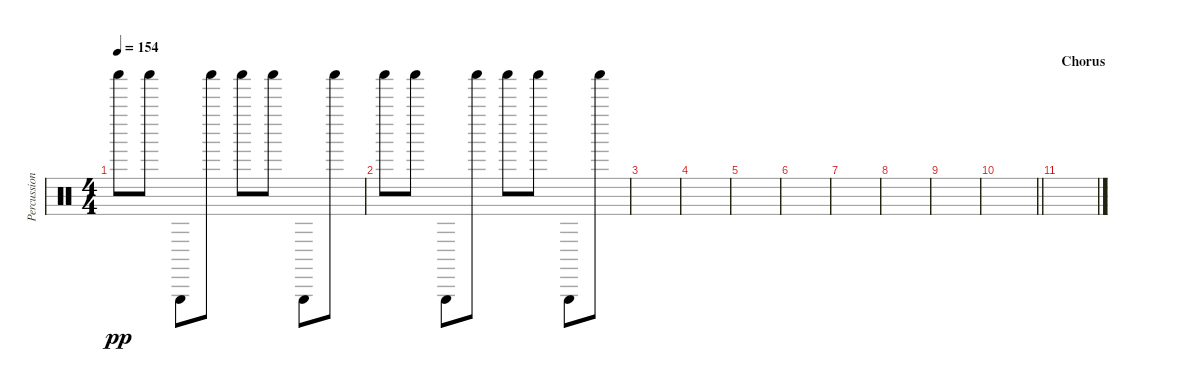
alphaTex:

\track ("Percussion (Brandon Saller)" "Percussion") {instrument percussion}
\staff {score}
\articulation defaults
\ts (4 4)
\tempo 154
\clef neutral
\ks c "Shaker (hit)".8{dy pp} "Shaker (hit)".8 "Triangle (hit)".8 "Shaker (hit)".8 "Shaker (hit)".8 "Shaker (hit)".8 "Triangle (hit)".8 "Shaker (hit)".8
|
"Shaker (hit)".8 "Shaker (hit)".8 "Triangle (hit)".8 "Shaker (hit)".8 "Shaker (hit)".8 "Shaker (hit)".8 "Triangle (hit)".8 "Shaker (hit)".8 |
|
|
|
|
|
|
|
\barLineRight lightlight
|
\section ("" "Chorus")
